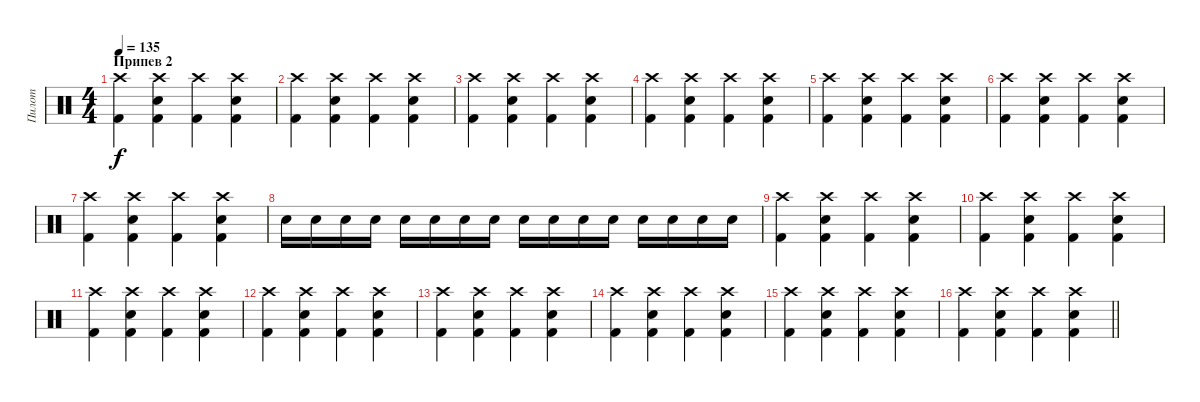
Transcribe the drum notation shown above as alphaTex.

\track ("Пилот" "Пилот") {instrument percussion}
\staff {score}
\articulation defaults
\ts (4 4)
\section ("" "Припев 2")
\tempo 135
\clef neutral
\ks c
("Crash high (hit)" "Kick (hit) 2").4{dy f} ("Crash high (hit)" "Kick (hit) 2" "Snare (hit) 2").4 ("Crash high (hit)" "Kick (hit) 2").4 ("Crash high (hit)" "Kick (hit) 2" "Snare (hit) 2").4 |
("Crash high (hit)" "Kick (hit) 2").4 ("Crash high (hit)" "Kick (hit) 2" "Snare (hit) 2").4 ("Crash high (hit)" "Kick (hit) 2").4 ("Crash high (hit)" "Kick (hit) 2" "Snare (hit) 2").4 |
("Crash high (hit)" "Kick (hit) 2").4 ("Crash high (hit)" "Kick (hit) 2" "Snare (hit) 2").4 ("Crash high (hit)" "Kick (hit) 2").4 ("Crash high (hit)" "Kick (hit) 2" "Snare (hit) 2").4 |
("Crash high (hit)" "Kick (hit) 2").4 ("Crash high (hit)" "Kick (hit) 2" "Snare (hit) 2").4 ("Crash high (hit)" "Kick (hit) 2").4 ("Crash high (hit)" "Kick (hit) 2" "Snare (hit) 2").4 |
("Crash high (hit)" "Kick (hit) 2").4 ("Crash high (hit)" "Kick (hit) 2" "Snare (hit) 2").4 ("Crash high (hit)" "Kick (hit) 2").4 ("Crash high (hit)" "Kick (hit) 2" "Snare (hit) 2").4 |
("Crash high (hit)" "Kick (hit) 2").4 ("Crash high (hit)" "Kick (hit) 2" "Snare (hit) 2").4 ("Crash high (hit)" "Kick (hit) 2").4 ("Crash high (hit)" "Kick (hit) 2" "Snare (hit) 2").4 |
("Crash high (hit)" "Kick (hit) 2").4 ("Crash high (hit)" "Kick (hit) 2" "Snare (hit) 2").4 ("Crash high (hit)" "Kick (hit) 2").4 ("Crash high (hit)" "Kick (hit) 2" "Snare (hit) 2").4 |
"Snare (hit) 2".16 "Snare (hit) 2".16 "Snare (hit) 2".16 "Snare (hit) 2".16 "Snare (hit) 2".16 "Snare (hit) 2".16 "Snare (hit) 2".16 "Snare (hit) 2".16 "Snare (hit) 2".16 "Snare (hit) 2".16 "Snare (hit) 2".16 "Snare (hit) 2".16 "Snare (hit) 2".16 "Snare (hit) 2".16 "Snare (hit) 2".16 "Snare (hit) 2".16 |
("Crash high (hit)" "Kick (hit) 2").4 ("Crash high (hit)" "Kick (hit) 2" "Snare (hit) 2").4 ("Crash high (hit)" "Kick (hit) 2").4 ("Crash high (hit)" "Kick (hit) 2" "Snare (hit) 2").4 |
("Crash high (hit)" "Kick (hit) 2").4 ("Crash high (hit)" "Kick (hit) 2" "Snare (hit) 2").4 ("Crash high (hit)" "Kick (hit) 2").4 ("Crash high (hit)" "Kick (hit) 2" "Snare (hit) 2").4 |
("Crash high (hit)" "Kick (hit) 2").4 ("Crash high (hit)" "Kick (hit) 2" "Snare (hit) 2").4 ("Crash high (hit)" "Kick (hit) 2").4 ("Crash high (hit)" "Kick (hit) 2" "Snare (hit) 2").4 |
("Crash high (hit)" "Kick (hit) 2").4 ("Crash high (hit)" "Kick (hit) 2" "Snare (hit) 2").4 ("Crash high (hit)" "Kick (hit) 2").4 ("Crash high (hit)" "Kick (hit) 2" "Snare (hit) 2").4 |
("Crash high (hit)" "Kick (hit) 2").4 ("Crash high (hit)" "Kick (hit) 2" "Snare (hit) 2").4 ("Crash high (hit)" "Kick (hit) 2").4 ("Crash high (hit)" "Kick (hit) 2" "Snare (hit) 2").4 |
("Crash high (hit)" "Kick (hit) 2").4 ("Crash high (hit)" "Kick (hit) 2" "Snare (hit) 2").4 ("Crash high (hit)" "Kick (hit) 2").4 ("Crash high (hit)" "Kick (hit) 2" "Snare (hit) 2").4 |
("Crash high (hit)" "Kick (hit) 2").4 ("Crash high (hit)" "Kick (hit) 2" "Snare (hit) 2").4 ("Crash high (hit)" "Kick (hit) 2").4 ("Crash high (hit)" "Kick (hit) 2" "Snare (hit) 2").4 |
\barLineRight lightlight
("Crash high (hit)" "Kick (hit) 2").4 ("Crash high (hit)" "Kick (hit) 2" "Snare (hit) 2").4 ("Crash high (hit)" "Kick (hit) 2").4 ("Crash high (hit)" "Kick (hit) 2" "Snare (hit) 2").4
